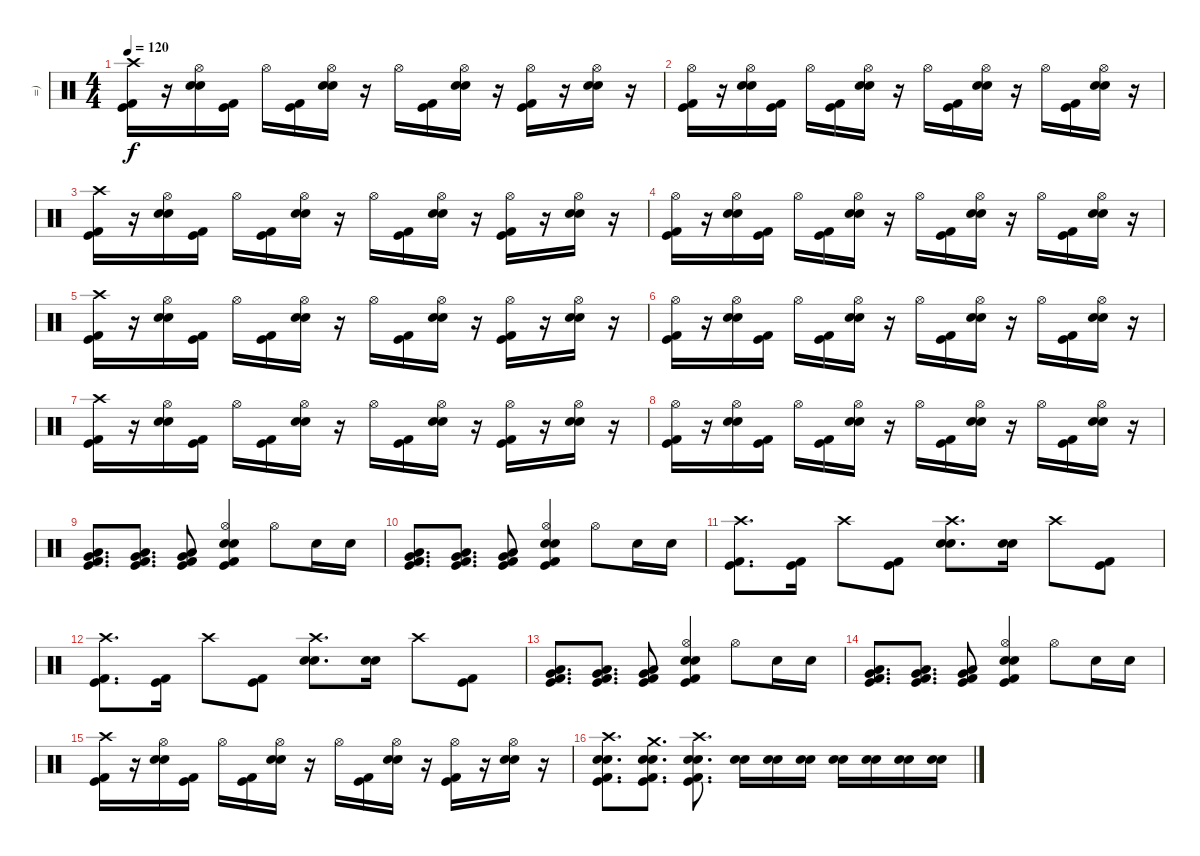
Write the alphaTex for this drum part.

\track ("=)" "=)") {instrument percussion}
\staff {score}
\articulation defaults
\ts (4 4)
\tempo 120
\clef neutral
\ks c
("Crash high (hit)" "Kick (hit)" "Kick (hit) 2").16{dy f} r.16 ("Hi-Hat (open)" "Snare (hit) 2" "Electric Snare (hit)").16 ("Kick (hit)" "Kick (hit) 2").16 "Hi-Hat (open)".16 ("Kick (hit)" "Kick (hit) 2").16 ("Hi-Hat (open)" "Snare (hit) 2" "Electric Snare (hit)").16 r.16 "Hi-Hat (open)".16 ("Kick (hit)" "Kick (hit) 2").16 ("Hi-Hat (open)" "Snare (hit) 2" "Electric Snare (hit)").16 r.16 ("Hi-Hat (open)" "Kick (hit)" "Kick (hit) 2").16 r.16 ("Hi-Hat (open)" "Snare (hit) 2" "Electric Snare (hit)").16 r.16 |
("Hi-Hat (open)" "Kick (hit)" "Kick (hit) 2").16 r.16 ("Hi-Hat (open)" "Snare (hit) 2" "Electric Snare (hit)").16 ("Kick (hit)" "Kick (hit) 2").16 "Hi-Hat (open)".16 ("Kick (hit)" "Kick (hit) 2").16 ("Hi-Hat (open)" "Snare (hit) 2" "Electric Snare (hit)").16 r.16 "Hi-Hat (open)".16 ("Kick (hit)" "Kick (hit) 2").16 ("Hi-Hat (open)" "Snare (hit) 2" "Electric Snare (hit)").16 r.16 "Hi-Hat (open)".16 ("Kick (hit)" "Kick (hit) 2").16 ("Hi-Hat (open)" "Snare (hit) 2" "Electric Snare (hit)").16 r.16 |
("Crash high (hit)" "Kick (hit)" "Kick (hit) 2").16 r.16 ("Hi-Hat (open)" "Snare (hit) 2" "Electric Snare (hit)").16 ("Kick (hit)" "Kick (hit) 2").16 "Hi-Hat (open)".16 ("Kick (hit)" "Kick (hit) 2").16 ("Hi-Hat (open)" "Snare (hit) 2" "Electric Snare (hit)").16 r.16 "Hi-Hat (open)".16 ("Kick (hit)" "Kick (hit) 2").16 ("Hi-Hat (open)" "Snare (hit) 2" "Electric Snare (hit)").16 r.16 ("Hi-Hat (open)" "Kick (hit)" "Kick (hit) 2").16 r.16 ("Hi-Hat (open)" "Snare (hit) 2" "Electric Snare (hit)").16 r.16 |
("Hi-Hat (open)" "Kick (hit)" "Kick (hit) 2").16 r.16 ("Hi-Hat (open)" "Snare (hit) 2" "Electric Snare (hit)").16 ("Kick (hit)" "Kick (hit) 2").16 "Hi-Hat (open)".16 ("Kick (hit)" "Kick (hit) 2").16 ("Hi-Hat (open)" "Snare (hit) 2" "Electric Snare (hit)").16 r.16 "Hi-Hat (open)".16 ("Kick (hit)" "Kick (hit) 2").16 ("Hi-Hat (open)" "Snare (hit) 2" "Electric Snare (hit)").16 r.16 "Hi-Hat (open)".16 ("Kick (hit)" "Kick (hit) 2").16 ("Hi-Hat (open)" "Snare (hit) 2" "Electric Snare (hit)").16 r.16 |
("Crash high (hit)" "Kick (hit)" "Kick (hit) 2").16 r.16 ("Hi-Hat (open)" "Snare (hit) 2" "Electric Snare (hit)").16 ("Kick (hit)" "Kick (hit) 2").16 "Hi-Hat (open)".16 ("Kick (hit)" "Kick (hit) 2").16 ("Hi-Hat (open)" "Snare (hit) 2" "Electric Snare (hit)").16 r.16 "Hi-Hat (open)".16 ("Kick (hit)" "Kick (hit) 2").16 ("Hi-Hat (open)" "Snare (hit) 2" "Electric Snare (hit)").16 r.16 ("Hi-Hat (open)" "Kick (hit)" "Kick (hit) 2").16 r.16 ("Hi-Hat (open)" "Snare (hit) 2" "Electric Snare (hit)").16 r.16 |
("Hi-Hat (open)" "Kick (hit)" "Kick (hit) 2").16 r.16 ("Hi-Hat (open)" "Snare (hit) 2" "Electric Snare (hit)").16 ("Kick (hit)" "Kick (hit) 2").16 "Hi-Hat (open)".16 ("Kick (hit)" "Kick (hit) 2").16 ("Hi-Hat (open)" "Snare (hit) 2" "Electric Snare (hit)").16 r.16 "Hi-Hat (open)".16 ("Kick (hit)" "Kick (hit) 2").16 ("Hi-Hat (open)" "Snare (hit) 2" "Electric Snare (hit)").16 r.16 "Hi-Hat (open)".16 ("Kick (hit)" "Kick (hit) 2").16 ("Hi-Hat (open)" "Snare (hit) 2" "Electric Snare (hit)").16 r.16 |
("Crash high (hit)" "Kick (hit)" "Kick (hit) 2").16 r.16 ("Hi-Hat (open)" "Snare (hit) 2" "Electric Snare (hit)").16 ("Kick (hit)" "Kick (hit) 2").16 "Hi-Hat (open)".16 ("Kick (hit)" "Kick (hit) 2").16 ("Hi-Hat (open)" "Snare (hit) 2" "Electric Snare (hit)").16 r.16 "Hi-Hat (open)".16 ("Kick (hit)" "Kick (hit) 2").16 ("Hi-Hat (open)" "Snare (hit) 2" "Electric Snare (hit)").16 r.16 ("Hi-Hat (open)" "Kick (hit)" "Kick (hit) 2").16 r.16 ("Hi-Hat (open)" "Snare (hit) 2" "Electric Snare (hit)").16 r.16 |
("Hi-Hat (open)" "Kick (hit)" "Kick (hit) 2").16 r.16 ("Hi-Hat (open)" "Snare (hit) 2" "Electric Snare (hit)").16 ("Kick (hit)" "Kick (hit) 2").16 "Hi-Hat (open)".16 ("Kick (hit)" "Kick (hit) 2").16 ("Hi-Hat (open)" "Snare (hit) 2" "Electric Snare (hit)").16 r.16 "Hi-Hat (open)".16 ("Kick (hit)" "Kick (hit) 2").16 ("Hi-Hat (open)" "Snare (hit) 2" "Electric Snare (hit)").16 r.16 "Hi-Hat (open)".16 ("Kick (hit)" "Kick (hit) 2").16 ("Hi-Hat (open)" "Snare (hit) 2" "Electric Snare (hit)").16 r.16 |
("Low Floor Tom (hit)" "Very Low Tom (hit)" "Kick (hit)" "Kick (hit) 2").8{d} ("Low Floor Tom (hit)" "Very Low Tom (hit)" "Kick (hit)" "Kick (hit) 2").8{d} ("Low Floor Tom (hit)" "Very Low Tom (hit)" "Kick (hit)" "Kick (hit) 2").8 ("Hi-Hat (open)" "Snare (hit) 2" "Electric Snare (hit)" "Kick (hit)" "Kick (hit) 2").4 "Hi-Hat (open)".8 "Electric Snare (hit)".16 "Electric Snare (hit)".16 |
("Low Floor Tom (hit)" "Very Low Tom (hit)" "Kick (hit)" "Kick (hit) 2").8{d} ("Low Floor Tom (hit)" "Very Low Tom (hit)" "Kick (hit)" "Kick (hit) 2").8{d} ("Low Floor Tom (hit)" "Very Low Tom (hit)" "Kick (hit)" "Kick (hit) 2").8 ("Hi-Hat (open)" "Snare (hit) 2" "Electric Snare (hit)" "Kick (hit)" "Kick (hit) 2").4 "Hi-Hat (open)".8 "Electric Snare (hit)".16 "Electric Snare (hit)".16 |
("Crash high (hit)" "Kick (hit)" "Kick (hit) 2").8{d} ("Kick (hit)" "Kick (hit) 2").16 "Crash high (hit)".8 ("Kick (hit)" "Kick (hit) 2").8 ("Crash high (hit)" "Snare (hit) 2" "Electric Snare (hit)").8{d} ("Snare (hit) 2" "Electric Snare (hit)").16 "Crash high (hit)".8 ("Kick (hit)" "Kick (hit) 2").8 |
("Crash high (hit)" "Kick (hit)" "Kick (hit) 2").8{d} ("Kick (hit)" "Kick (hit) 2").16 "Crash high (hit)".8 ("Kick (hit)" "Kick (hit) 2").8 ("Crash high (hit)" "Snare (hit) 2" "Electric Snare (hit)").8{d} ("Snare (hit) 2" "Electric Snare (hit)").16 "Crash high (hit)".8 ("Kick (hit)" "Kick (hit) 2").8 |
("Low Floor Tom (hit)" "Very Low Tom (hit)" "Kick (hit)" "Kick (hit) 2").8{d} ("Low Floor Tom (hit)" "Very Low Tom (hit)" "Kick (hit)" "Kick (hit) 2").8{d} ("Low Floor Tom (hit)" "Very Low Tom (hit)" "Kick (hit)" "Kick (hit) 2").8 ("Hi-Hat (open)" "Snare (hit) 2" "Electric Snare (hit)" "Kick (hit)" "Kick (hit) 2").4 "Hi-Hat (open)".8 "Electric Snare (hit)".16 "Electric Snare (hit)".16 |
("Low Floor Tom (hit)" "Very Low Tom (hit)" "Kick (hit)" "Kick (hit) 2").8{d} ("Low Floor Tom (hit)" "Very Low Tom (hit)" "Kick (hit)" "Kick (hit) 2").8{d} ("Low Floor Tom (hit)" "Very Low Tom (hit)" "Kick (hit)" "Kick (hit) 2").8 ("Hi-Hat (open)" "Snare (hit) 2" "Electric Snare (hit)" "Kick (hit)" "Kick (hit) 2").4 "Hi-Hat (open)".8 "Electric Snare (hit)".16 "Electric Snare (hit)".16 |
("Crash high (hit)" "Kick (hit)" "Kick (hit) 2").16 r.16 ("Hi-Hat (open)" "Snare (hit) 2" "Electric Snare (hit)").16 ("Kick (hit)" "Kick (hit) 2").16 "Hi-Hat (open)".16 ("Kick (hit)" "Kick (hit) 2").16 ("Hi-Hat (open)" "Snare (hit) 2" "Electric Snare (hit)").16 r.16 "Hi-Hat (open)".16 ("Kick (hit)" "Kick (hit) 2").16 ("Hi-Hat (open)" "Snare (hit) 2" "Electric Snare (hit)").16 r.16 ("Hi-Hat (open)" "Kick (hit)" "Kick (hit) 2").16 r.16 ("Hi-Hat (open)" "Snare (hit) 2" "Electric Snare (hit)").16 r.16 |
("Crash high (hit)" "Electric Snare (hit)" "Snare (hit) 2" "Kick (hit)" "Kick (hit) 2").8{d} ("Crash medium (hit)" "Electric Snare (hit)" "Snare (hit) 2" "Kick (hit)" "Kick (hit) 2").8{d} ("Crash high (hit)" "Electric Snare (hit)" "Snare (hit) 2" "Kick (hit)" "Kick (hit) 2").8{d} ("Electric Snare (hit)" "Snare (hit) 2").16 ("Electric Snare (hit)" "Snare (hit) 2").16 ("Electric Snare (hit)" "Snare (hit) 2").16 ("Electric Snare (hit)" "Snare (hit) 2").16 ("Electric Snare (hit)" "Snare (hit) 2").16 ("Electric Snare (hit)" "Snare (hit) 2").16 ("Electric Snare (hit)" "Snare (hit) 2").16
